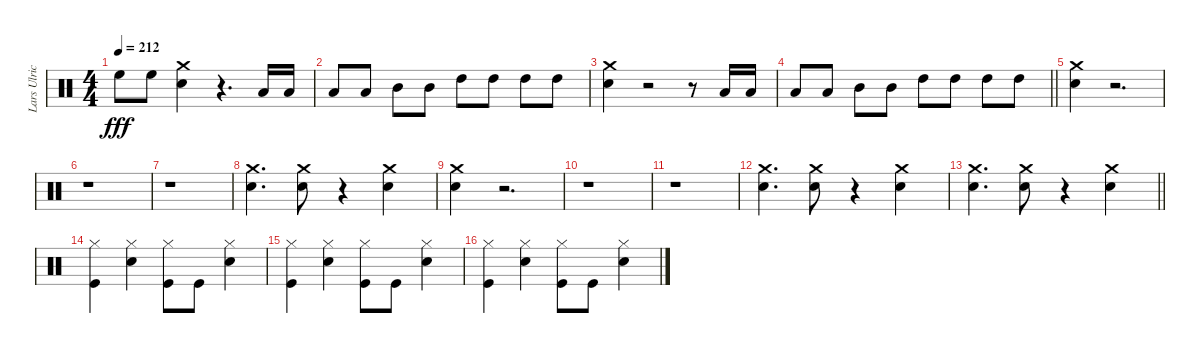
\track ("Lars Ulrich" "Lars Ulric") {instrument percussion}
\staff {score}
\articulation defaults
\ts (4 4)
\tempo 212
\clef neutral
\ks c "High Floor Tom (hit)".8{dy fff} "High Floor Tom (hit)".8
("Snare (hit) 2" "Crash medium (hit)").4 r.4{d} "Low Tom (hit)".16 "Low Tom (hit)".16 |
"Low Tom (hit)".8 "Low Tom (hit)".8 "Mid Tom (hit)".8 "Mid Tom (hit)".8 "High Tom (hit)".8 "High Tom (hit)".8 "High Tom (hit)".8 "High Tom (hit)".8 |
("Snare (hit) 2" "Crash medium (hit)").4 r.2 r.8 "Low Tom (hit)".16 "Low Tom (hit)".16 |
\barLineRight lightlight "Low Tom (hit)".8 "Low Tom (hit)".8 "Mid Tom (hit)".8 "Mid Tom (hit)".8 "High Tom (hit)".8 "High Tom (hit)".8 "High Tom (hit)".8 "High Tom (hit)".8
|
("Snare (hit) 2" "Crash medium (hit)").4 r.2{d} |
r.1 |
r.1 |
("Snare (hit) 2" "Crash medium (hit)").4{d} ("Snare (hit) 2" "Crash medium (hit)").8 r.4 ("Crash medium (hit)" "Snare (hit) 2").4 |
("Snare (hit) 2" "Crash medium (hit)").4 r.2{d} |
r.1 |
r.1 |
("Snare (hit) 2" "Crash medium (hit)").4{d} ("Snare (hit) 2" "Crash medium (hit)").8 r.4 ("Snare (hit) 2" "Crash medium (hit)").4 |
\barLineRight lightlight
("Snare (hit) 2" "Crash medium (hit)").4{d} ("Snare (hit) 2" "Crash medium (hit)").8 r.4 ("Snare (hit) 2" "Crash medium (hit)").4 |
("Hi-Hat (closed)" "Kick (hit)").4 ("Snare (hit) 2" "Hi-Hat (closed)").4 ("Kick (hit)" "Hi-Hat (closed)").8 "Kick (hit)".8 ("Snare (hit) 2" "Hi-Hat (closed)").4 |
("Kick (hit)" "Hi-Hat (closed)").4 ("Snare (hit) 2" "Hi-Hat (closed)").4 ("Hi-Hat (closed)" "Kick (hit)").8 "Kick (hit)".8 ("Snare (hit) 2" "Hi-Hat (closed)").4 |
("Kick (hit)" "Hi-Hat (closed)").4 ("Snare (hit) 2" "Hi-Hat (closed)").4 ("Kick (hit)" "Hi-Hat (closed)").8 "Kick (hit)".8 ("Hi-Hat (closed)" "Snare (hit) 2").4
